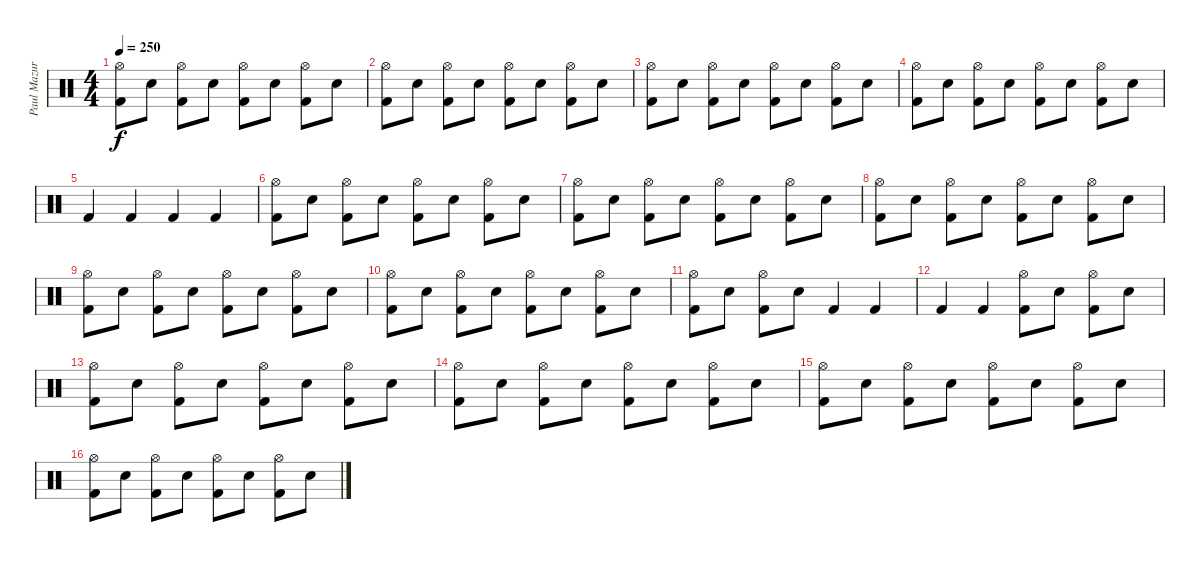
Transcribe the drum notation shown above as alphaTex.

\track ("Paul Mazurkiewicz" "Paul Mazur") {instrument percussion}
\staff {score}
\articulation defaults
\ts (4 4)
\tempo 250
\clef neutral
\ks c
("Hi-Hat (open)" "Kick (hit) 2").8{dy f} "Electric Snare (hit)".8 ("Hi-Hat (open)" "Kick (hit) 2").8 "Electric Snare (hit)".8 ("Hi-Hat (open)" "Kick (hit) 2").8 "Electric Snare (hit)".8 ("Hi-Hat (open)" "Kick (hit) 2").8 "Electric Snare (hit)".8 |
("Hi-Hat (open)" "Kick (hit) 2").8 "Electric Snare (hit)".8 ("Hi-Hat (open)" "Kick (hit) 2").8 "Electric Snare (hit)".8 ("Hi-Hat (open)" "Kick (hit) 2").8 "Electric Snare (hit)".8 ("Hi-Hat (open)" "Kick (hit) 2").8 "Electric Snare (hit)".8 |
("Hi-Hat (open)" "Kick (hit) 2").8 "Electric Snare (hit)".8 ("Hi-Hat (open)" "Kick (hit) 2").8 "Electric Snare (hit)".8 ("Hi-Hat (open)" "Kick (hit) 2").8 "Electric Snare (hit)".8 ("Hi-Hat (open)" "Kick (hit) 2").8 "Electric Snare (hit)".8 |
("Hi-Hat (open)" "Kick (hit) 2").8 "Electric Snare (hit)".8 ("Hi-Hat (open)" "Kick (hit) 2").8 "Electric Snare (hit)".8 ("Hi-Hat (open)" "Kick (hit) 2").8 "Electric Snare (hit)".8 ("Hi-Hat (open)" "Kick (hit) 2").8 "Electric Snare (hit)".8 |
"Kick (hit) 2".4 "Kick (hit) 2".4 "Kick (hit) 2".4 "Kick (hit) 2".4 |
("Hi-Hat (open)" "Kick (hit) 2").8 "Electric Snare (hit)".8 ("Hi-Hat (open)" "Kick (hit) 2").8 "Electric Snare (hit)".8 ("Hi-Hat (open)" "Kick (hit) 2").8 "Electric Snare (hit)".8 ("Hi-Hat (open)" "Kick (hit) 2").8 "Electric Snare (hit)".8 |
("Hi-Hat (open)" "Kick (hit) 2").8 "Electric Snare (hit)".8 ("Hi-Hat (open)" "Kick (hit) 2").8 "Electric Snare (hit)".8 ("Hi-Hat (open)" "Kick (hit) 2").8 "Electric Snare (hit)".8 ("Hi-Hat (open)" "Kick (hit) 2").8 "Electric Snare (hit)".8 |
("Hi-Hat (open)" "Kick (hit) 2").8 "Electric Snare (hit)".8 ("Hi-Hat (open)" "Kick (hit) 2").8 "Electric Snare (hit)".8 ("Hi-Hat (open)" "Kick (hit) 2").8 "Electric Snare (hit)".8 ("Hi-Hat (open)" "Kick (hit) 2").8 "Electric Snare (hit)".8 |
("Hi-Hat (open)" "Kick (hit) 2").8 "Electric Snare (hit)".8 ("Hi-Hat (open)" "Kick (hit) 2").8 "Electric Snare (hit)".8 ("Hi-Hat (open)" "Kick (hit) 2").8 "Electric Snare (hit)".8 ("Hi-Hat (open)" "Kick (hit) 2").8 "Electric Snare (hit)".8 |
("Hi-Hat (open)" "Kick (hit) 2").8 "Electric Snare (hit)".8 ("Hi-Hat (open)" "Kick (hit) 2").8 "Electric Snare (hit)".8 ("Hi-Hat (open)" "Kick (hit) 2").8 "Electric Snare (hit)".8 ("Hi-Hat (open)" "Kick (hit) 2").8 "Electric Snare (hit)".8 |
("Hi-Hat (open)" "Kick (hit) 2").8 "Electric Snare (hit)".8 ("Hi-Hat (open)" "Kick (hit) 2").8 "Electric Snare (hit)".8 "Kick (hit) 2".4 "Kick (hit) 2".4 |
"Kick (hit) 2".4 "Kick (hit) 2".4 ("Hi-Hat (open)" "Kick (hit) 2").8 "Electric Snare (hit)".8 ("Hi-Hat (open)" "Kick (hit) 2").8 "Electric Snare (hit)".8 |
("Hi-Hat (open)" "Kick (hit) 2").8 "Electric Snare (hit)".8 ("Hi-Hat (open)" "Kick (hit) 2").8 "Electric Snare (hit)".8 ("Hi-Hat (open)" "Kick (hit) 2").8 "Electric Snare (hit)".8 ("Hi-Hat (open)" "Kick (hit) 2").8 "Electric Snare (hit)".8 |
("Hi-Hat (open)" "Kick (hit) 2").8 "Electric Snare (hit)".8 ("Hi-Hat (open)" "Kick (hit) 2").8 "Electric Snare (hit)".8 ("Hi-Hat (open)" "Kick (hit) 2").8 "Electric Snare (hit)".8 ("Hi-Hat (open)" "Kick (hit) 2").8 "Electric Snare (hit)".8 |
("Hi-Hat (open)" "Kick (hit) 2").8 "Electric Snare (hit)".8 ("Hi-Hat (open)" "Kick (hit) 2").8 "Electric Snare (hit)".8 ("Hi-Hat (open)" "Kick (hit) 2").8 "Electric Snare (hit)".8 ("Hi-Hat (open)" "Kick (hit) 2").8 "Electric Snare (hit)".8 |
("Hi-Hat (open)" "Kick (hit) 2").8 "Electric Snare (hit)".8 ("Hi-Hat (open)" "Kick (hit) 2").8 "Electric Snare (hit)".8 ("Hi-Hat (open)" "Kick (hit) 2").8 "Electric Snare (hit)".8 ("Hi-Hat (open)" "Kick (hit) 2").8 "Electric Snare (hit)".8
